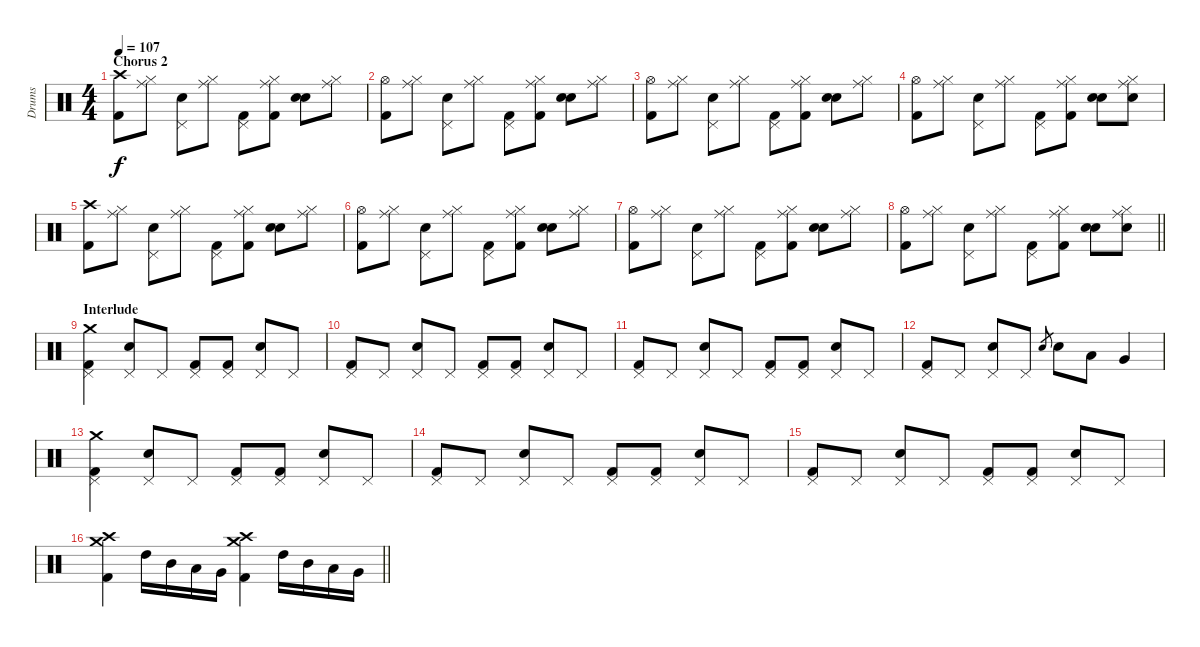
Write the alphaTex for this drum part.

\track ("Drums" "Drums") {instrument percussion}
\staff {score}
\articulation defaults
\ts (4 4)
\section ("" "Chorus 2")
\tempo 107
\clef neutral
\ks c
("Crash high (hit)" "Kick (hit) 2").8{dy f} ("Ride (middle)" "Hi-Hat (closed)").8 ("Pedal Hi-Hat (hit)" "Electric Snare (hit)").8 ("Ride (middle)" "Hi-Hat (closed)").8 ("Pedal Hi-Hat (hit)" "Kick (hit) 2").8 ("Ride (middle)" "Hi-Hat (closed)" "Kick (hit) 2").8 ("Snare (hit) 2" "Electric Snare (hit)").8 ("Ride (middle)" "Hi-Hat (closed)").8 |
("Hi-Hat (open)" "Kick (hit) 2").8 ("Ride (middle)" "Hi-Hat (closed)").8 ("Pedal Hi-Hat (hit)" "Electric Snare (hit)").8 ("Ride (middle)" "Hi-Hat (closed)").8 ("Pedal Hi-Hat (hit)" "Kick (hit) 2").8 ("Ride (middle)" "Hi-Hat (closed)" "Kick (hit) 2").8 ("Snare (hit) 2" "Electric Snare (hit)").8 ("Ride (middle)" "Hi-Hat (closed)").8 |
("Hi-Hat (open)" "Kick (hit) 2").8 ("Ride (middle)" "Hi-Hat (closed)").8 ("Pedal Hi-Hat (hit)" "Electric Snare (hit)").8 ("Ride (middle)" "Hi-Hat (closed)").8 ("Pedal Hi-Hat (hit)" "Kick (hit) 2").8 ("Ride (middle)" "Hi-Hat (closed)" "Kick (hit) 2").8 ("Snare (hit) 2" "Electric Snare (hit)").8 ("Ride (middle)" "Hi-Hat (closed)").8 |
("Hi-Hat (open)" "Kick (hit) 2").8 ("Ride (middle)" "Hi-Hat (closed)").8 ("Pedal Hi-Hat (hit)" "Electric Snare (hit)").8 ("Ride (middle)" "Hi-Hat (closed)").8 ("Pedal Hi-Hat (hit)" "Kick (hit) 2").8 ("Ride (middle)" "Hi-Hat (closed)" "Kick (hit) 2").8 ("Snare (hit) 2" "Electric Snare (hit)").8 ("Ride (middle)" "Hi-Hat (closed)" "Electric Snare (hit)").8 |
("Crash high (hit)" "Kick (hit) 2").8 ("Ride (middle)" "Hi-Hat (closed)").8 ("Pedal Hi-Hat (hit)" "Electric Snare (hit)").8 ("Ride (middle)" "Hi-Hat (closed)").8 ("Pedal Hi-Hat (hit)" "Kick (hit) 2").8 ("Ride (middle)" "Hi-Hat (closed)" "Kick (hit) 2").8 ("Snare (hit) 2" "Electric Snare (hit)").8 ("Ride (middle)" "Hi-Hat (closed)").8 |
("Hi-Hat (open)" "Kick (hit) 2").8 ("Ride (middle)" "Hi-Hat (closed)").8 ("Pedal Hi-Hat (hit)" "Electric Snare (hit)").8 ("Ride (middle)" "Hi-Hat (closed)").8 ("Pedal Hi-Hat (hit)" "Kick (hit) 2").8 ("Ride (middle)" "Hi-Hat (closed)" "Kick (hit) 2").8 ("Snare (hit) 2" "Electric Snare (hit)").8 ("Ride (middle)" "Hi-Hat (closed)").8 |
("Hi-Hat (open)" "Kick (hit) 2").8 ("Ride (middle)" "Hi-Hat (closed)").8 ("Pedal Hi-Hat (hit)" "Electric Snare (hit)").8 ("Ride (middle)" "Hi-Hat (closed)").8 ("Pedal Hi-Hat (hit)" "Kick (hit) 2").8 ("Ride (middle)" "Hi-Hat (closed)" "Kick (hit) 2").8 ("Snare (hit) 2" "Electric Snare (hit)").8 ("Ride (middle)" "Hi-Hat (closed)").8 |
\barLineRight lightlight
("Hi-Hat (open)" "Kick (hit) 2").8 ("Ride (middle)" "Hi-Hat (closed)").8 ("Pedal Hi-Hat (hit)" "Electric Snare (hit)").8 ("Ride (middle)" "Hi-Hat (closed)").8 ("Pedal Hi-Hat (hit)" "Kick (hit) 2").8 ("Ride (middle)" "Hi-Hat (closed)" "Kick (hit) 2").8 ("Snare (hit) 2" "Electric Snare (hit)").8 ("Ride (middle)" "Hi-Hat (closed)" "Electric Snare (hit)").8 |
\section ("" "Interlude")
("Crash medium (hit)" "Pedal Hi-Hat (hit)" "Kick (hit) 2").4 ("Pedal Hi-Hat (hit)" "Electric Snare (hit)").8 "Pedal Hi-Hat (hit)".8 ("Pedal Hi-Hat (hit)" "Kick (hit) 2").8 ("Pedal Hi-Hat (hit)" "Kick (hit) 2").8 ("Pedal Hi-Hat (hit)" "Electric Snare (hit)").8 "Pedal Hi-Hat (hit)".8 |
("Pedal Hi-Hat (hit)" "Kick (hit) 2").8 "Pedal Hi-Hat (hit)".8 ("Pedal Hi-Hat (hit)" "Electric Snare (hit)").8 "Pedal Hi-Hat (hit)".8 ("Pedal Hi-Hat (hit)" "Kick (hit) 2").8 ("Pedal Hi-Hat (hit)" "Kick (hit) 2").8 ("Pedal Hi-Hat (hit)" "Electric Snare (hit)").8 "Pedal Hi-Hat (hit)".8 |
("Pedal Hi-Hat (hit)" "Kick (hit) 2").8 "Pedal Hi-Hat (hit)".8 ("Pedal Hi-Hat (hit)" "Electric Snare (hit)").8 "Pedal Hi-Hat (hit)".8 ("Pedal Hi-Hat (hit)" "Kick (hit) 2").8 ("Pedal Hi-Hat (hit)" "Kick (hit) 2").8 ("Pedal Hi-Hat (hit)" "Electric Snare (hit)").8 "Pedal Hi-Hat (hit)".8 |
("Pedal Hi-Hat (hit)" "Kick (hit) 2").8 "Pedal Hi-Hat (hit)".8 ("Pedal Hi-Hat (hit)" "Electric Snare (hit)").8 "Pedal Hi-Hat (hit)".8 "Electric Snare (hit)".8{gr} "Electric Snare (hit)".8 "Low Tom (hit)".8 "Very Low Tom (hit)".4 |
("Crash medium (hit)" "Pedal Hi-Hat (hit)" "Kick (hit) 2").4 ("Pedal Hi-Hat (hit)" "Electric Snare (hit)").8 "Pedal Hi-Hat (hit)".8 ("Pedal Hi-Hat (hit)" "Kick (hit) 2").8 ("Pedal Hi-Hat (hit)" "Kick (hit) 2").8 ("Pedal Hi-Hat (hit)" "Electric Snare (hit)").8 "Pedal Hi-Hat (hit)".8 |
("Pedal Hi-Hat (hit)" "Kick (hit) 2").8 "Pedal Hi-Hat (hit)".8 ("Pedal Hi-Hat (hit)" "Electric Snare (hit)").8 "Pedal Hi-Hat (hit)".8 ("Pedal Hi-Hat (hit)" "Kick (hit) 2").8 ("Pedal Hi-Hat (hit)" "Kick (hit) 2").8 ("Pedal Hi-Hat (hit)" "Electric Snare (hit)").8 "Pedal Hi-Hat (hit)".8 |
("Pedal Hi-Hat (hit)" "Kick (hit) 2").8 "Pedal Hi-Hat (hit)".8 ("Pedal Hi-Hat (hit)" "Electric Snare (hit)").8 "Pedal Hi-Hat (hit)".8 ("Pedal Hi-Hat (hit)" "Kick (hit) 2").8 ("Pedal Hi-Hat (hit)" "Kick (hit) 2").8 ("Pedal Hi-Hat (hit)" "Electric Snare (hit)").8 "Pedal Hi-Hat (hit)".8 |
\barLineRight lightlight
("Crash medium (hit)" "Crash high (hit)" "Kick (hit) 2").4 "High Tom (hit)".16 "Mid Tom (hit)".16 "Low Tom (hit)".16 "Very Low Tom (hit)".16 ("Crash medium (hit)" "Crash high (hit)" "Kick (hit) 2").4 "High Tom (hit)".16 "Mid Tom (hit)".16 "Low Tom (hit)".16 "Very Low Tom (hit)".16
